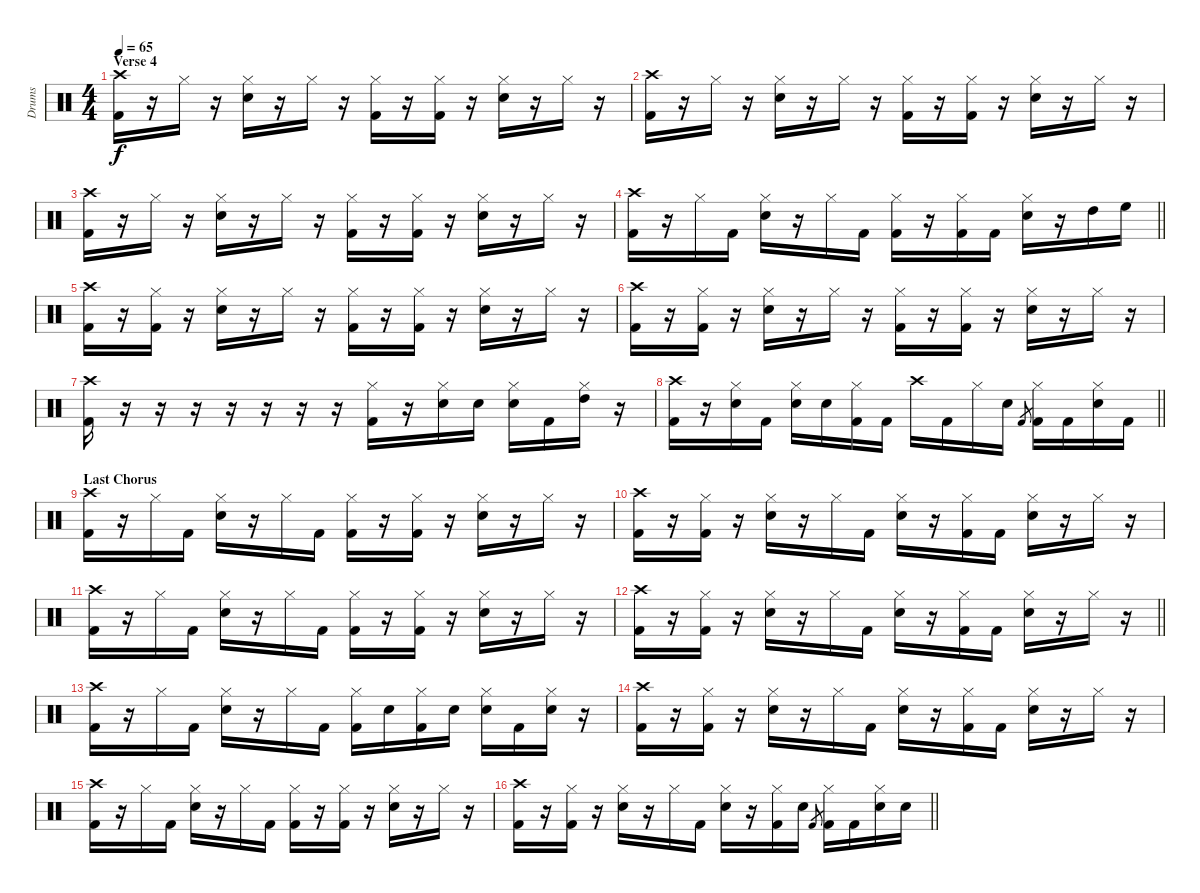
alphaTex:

\track ("Drums" "Drums") {instrument percussion}
\staff {score}
\articulation defaults
\ts (4 4)
\section ("" "Verse 4")
\tempo 65
\clef neutral
\ks c
("Crash high (hit)" "Kick (hit) 2").16{dy f} r.16 "Hi-Hat (closed)".16 r.16 ("Hi-Hat (closed)" "Snare (hit) 2").16 r.16 "Hi-Hat (closed)".16 r.16 ("Hi-Hat (closed)" "Kick (hit) 2").16 r.16 ("Hi-Hat (closed)" "Kick (hit) 2").16 r.16 ("Hi-Hat (closed)" "Snare (hit) 2").16 r.16 "Hi-Hat (closed)".16 r.16 |
("Crash high (hit)" "Kick (hit) 2").16 r.16 "Hi-Hat (closed)".16 r.16 ("Hi-Hat (closed)" "Snare (hit) 2").16 r.16 "Hi-Hat (closed)".16 r.16 ("Hi-Hat (closed)" "Kick (hit) 2").16 r.16 ("Hi-Hat (closed)" "Kick (hit) 2").16 r.16 ("Hi-Hat (closed)" "Snare (hit) 2").16 r.16 "Hi-Hat (closed)".16 r.16 |
("Crash high (hit)" "Kick (hit) 2").16 r.16 "Hi-Hat (closed)".16 r.16 ("Hi-Hat (closed)" "Snare (hit) 2").16 r.16 "Hi-Hat (closed)".16 r.16 ("Hi-Hat (closed)" "Kick (hit) 2").16 r.16 ("Hi-Hat (closed)" "Kick (hit) 2").16 r.16 ("Hi-Hat (closed)" "Snare (hit) 2").16 r.16 "Hi-Hat (closed)".16 r.16 |
\barLineRight lightlight
("Crash high (hit)" "Kick (hit) 2").16 r.16 "Hi-Hat (closed)".16 "Kick (hit) 2".16 ("Hi-Hat (closed)" "Snare (hit) 2").16 r.16 "Hi-Hat (closed)".16 "Kick (hit) 2".16 ("Hi-Hat (closed)" "Kick (hit) 2").16 r.16 ("Hi-Hat (closed)" "Kick (hit) 2").16 "Kick (hit) 2".16 ("Hi-Hat (closed)" "Snare (hit) 2").16 r.16 "High Tom (hit)".16 "High Floor Tom (hit)".16 |
("Crash high (hit)" "Kick (hit) 2").16 r.16 ("Hi-Hat (closed)" "Kick (hit) 2").16 r.16 ("Hi-Hat (closed)" "Snare (hit) 2").16 r.16 "Hi-Hat (closed)".16 r.16 ("Hi-Hat (closed)" "Kick (hit) 2").16 r.16 ("Hi-Hat (closed)" "Kick (hit) 2").16 r.16 ("Hi-Hat (closed)" "Snare (hit) 2").16 r.16 "Hi-Hat (closed)".16 r.16 |
("Crash high (hit)" "Kick (hit) 2").16 r.16 ("Hi-Hat (closed)" "Kick (hit) 2").16 r.16 ("Hi-Hat (closed)" "Snare (hit) 2").16 r.16 "Hi-Hat (closed)".16 r.16 ("Hi-Hat (closed)" "Kick (hit) 2").16 r.16 ("Hi-Hat (closed)" "Kick (hit) 2").16 r.16 ("Hi-Hat (closed)" "Snare (hit) 2").16 r.16 "Hi-Hat (closed)".16 r.16 |
("Crash high (hit)" "Kick (hit) 2").16 r.16 r.16 r.16 r.16 r.16 r.16 r.16 ("Hi-Hat (closed)" "Kick (hit) 2").16 r.16 ("Hi-Hat (closed)" "Snare (hit) 2").16 "Snare (hit) 2".16 ("Hi-Hat (closed)" "Snare (hit) 2").16 "Kick (hit) 2".16 ("Hi-Hat (closed)" "High Tom (hit)").16 r.16 |
\barLineRight lightlight
("Crash high (hit)" "Kick (hit) 2").16 r.16 ("Hi-Hat (closed)" "Snare (hit) 2").16 "Kick (hit) 2".16 ("Hi-Hat (closed)" "Snare (hit) 2").16 "Snare (hit) 2".16 ("Hi-Hat (closed)" "Kick (hit) 2").16 "Kick (hit) 2".16 "Crash high (hit)".16 "Kick (hit) 2".16 "Hi-Hat (closed)".16 "Snare (hit) 2".16 "Kick (hit) 2".8{gr} ("Hi-Hat (closed)" "Kick (hit) 2").16 "Kick (hit) 2".16 ("Hi-Hat (closed)" "Snare (hit) 2").16 "Kick (hit) 2".16 |
\section ("" "Last Chorus")
("Crash high (hit)" "Kick (hit) 2").16 r.16 "Hi-Hat (closed)".16 "Kick (hit) 2".16 ("Hi-Hat (closed)" "Snare (hit) 2").16 r.16 "Hi-Hat (closed)".16 "Kick (hit) 2".16 ("Hi-Hat (closed)" "Kick (hit) 2").16 r.16 ("Hi-Hat (closed)" "Kick (hit) 2").16 r.16 ("Hi-Hat (closed)" "Snare (hit) 2").16 r.16 "Hi-Hat (closed)".16 r.16 |
("Crash high (hit)" "Kick (hit) 2").16 r.16 ("Hi-Hat (closed)" "Kick (hit) 2").16 r.16 ("Hi-Hat (closed)" "Snare (hit) 2").16 r.16 "Hi-Hat (closed)".16 "Kick (hit) 2".16 ("Hi-Hat (closed)" "Snare (hit) 2").16 r.16 ("Hi-Hat (closed)" "Kick (hit) 2").16 "Kick (hit) 2".16 ("Hi-Hat (closed)" "Snare (hit) 2").16 r.16 "Hi-Hat (closed)".16 r.16 |
("Crash high (hit)" "Kick (hit) 2").16 r.16 "Hi-Hat (closed)".16 "Kick (hit) 2".16 ("Hi-Hat (closed)" "Snare (hit) 2").16 r.16 "Hi-Hat (closed)".16 "Kick (hit) 2".16 ("Hi-Hat (closed)" "Kick (hit) 2").16 r.16 ("Hi-Hat (closed)" "Kick (hit) 2").16 r.16 ("Hi-Hat (closed)" "Snare (hit) 2").16 r.16 "Hi-Hat (closed)".16 r.16 |
\barLineRight lightlight
("Crash high (hit)" "Kick (hit) 2").16 r.16 ("Hi-Hat (closed)" "Kick (hit) 2").16 r.16 ("Hi-Hat (closed)" "Snare (hit) 2").16 r.16 "Hi-Hat (closed)".16 "Kick (hit) 2".16 ("Hi-Hat (closed)" "Snare (hit) 2").16 r.16 ("Hi-Hat (closed)" "Kick (hit) 2").16 "Kick (hit) 2".16 ("Hi-Hat (closed)" "Snare (hit) 2").16 r.16 "Hi-Hat (closed)".16 r.16 |
("Crash high (hit)" "Kick (hit) 2").16 r.16 "Hi-Hat (closed)".16 "Kick (hit) 2".16 ("Hi-Hat (closed)" "Snare (hit) 2").16 r.16 "Hi-Hat (closed)".16 "Kick (hit) 2".16 ("Hi-Hat (closed)" "Kick (hit) 2").16 "Snare (hit) 2".16 ("Hi-Hat (closed)" "Kick (hit) 2").16 "Snare (hit) 2".16 ("Hi-Hat (closed)" "Snare (hit) 2").16 "Kick (hit) 2".16 ("Hi-Hat (closed)" "Snare (hit) 2").16 r.16 |
("Crash high (hit)" "Kick (hit) 2").16 r.16 ("Hi-Hat (closed)" "Kick (hit) 2").16 r.16 ("Hi-Hat (closed)" "Snare (hit) 2").16 r.16 "Hi-Hat (closed)".16 "Kick (hit) 2".16 ("Hi-Hat (closed)" "Snare (hit) 2").16 r.16 ("Hi-Hat (closed)" "Kick (hit) 2").16 "Kick (hit) 2".16 ("Hi-Hat (closed)" "Snare (hit) 2").16 r.16 "Hi-Hat (closed)".16 r.16 |
("Crash high (hit)" "Kick (hit) 2").16 r.16 "Hi-Hat (closed)".16 "Kick (hit) 2".16 ("Hi-Hat (closed)" "Snare (hit) 2").16 r.16 "Hi-Hat (closed)".16 "Kick (hit) 2".16 ("Hi-Hat (closed)" "Kick (hit) 2").16 r.16 ("Hi-Hat (closed)" "Kick (hit) 2").16 r.16 ("Hi-Hat (closed)" "Snare (hit) 2").16 r.16 "Hi-Hat (closed)".16 r.16 |
\barLineRight lightlight
("Crash high (hit)" "Kick (hit) 2").16 r.16 ("Hi-Hat (closed)" "Kick (hit) 2").16 r.16 ("Hi-Hat (closed)" "Snare (hit) 2").16 r.16 "Hi-Hat (closed)".16 "Kick (hit) 2".16 ("Hi-Hat (closed)" "Snare (hit) 2").16 r.16 ("Hi-Hat (closed)" "Kick (hit) 2").16 "Snare (hit) 2".16 "Kick (hit) 2".8{gr} ("Hi-Hat (closed)" "Kick (hit) 2").16 "Kick (hit) 2".16 ("Hi-Hat (closed)" "Snare (hit) 2").16 "Snare (hit) 2".16
